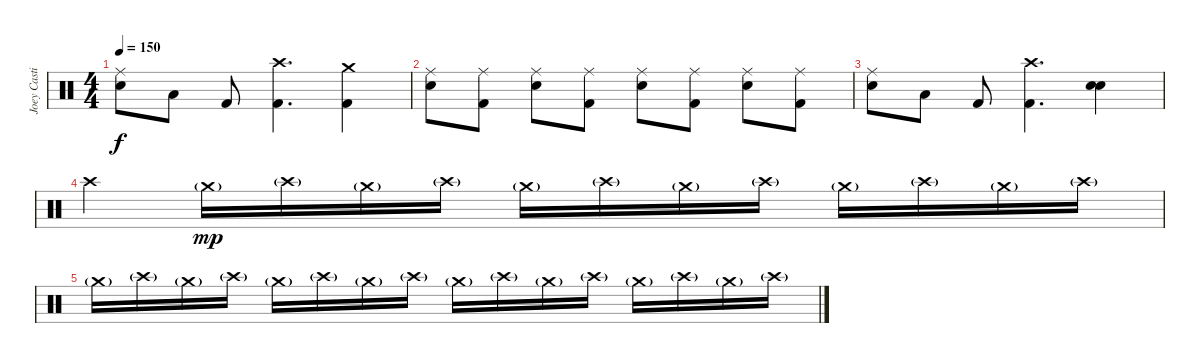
\track ("Joey Castillo" "Joey Casti") {instrument percussion}
\staff {score}
\articulation defaults
\ts (4 4)
\tempo 150
\clef neutral
\ks c
("Ride (middle)" "Snare (hit) 2").8{dy f} "Low Tom (hit)".8 "Kick (hit) 2".8 ("Crash high (hit)" "Kick (hit) 2").4{d} ("Crash medium (hit)" "Kick (hit) 2").4 |
("Ride (middle)" "Snare (hit) 2").8 ("Ride (middle)" "Kick (hit) 2").8 ("Ride (middle)" "Snare (hit) 2").8 ("Ride (middle)" "Kick (hit) 2").8 ("Ride (middle)" "Snare (hit) 2").8 ("Ride (middle)" "Kick (hit) 2").8 ("Ride (middle)" "Snare (hit) 2").8 ("Ride (middle)" "Kick (hit) 2").8 |
("Ride (middle)" "Snare (hit) 2").8 "Low Tom (hit)".8 "Kick (hit) 2".8 ("Crash high (hit)" "Kick (hit) 2").4{d} ("Snare (hit) 2" "Snare (hit) 2").4{bd 240} |
"Crash high (hit)".4 "Crash medium (hit)"{g}.16{dy mp} "Crash high (hit)"{g}.16 "Crash medium (hit)"{g}.16 "Crash high (hit)"{g}.16 "Crash medium (hit)"{g}.16 "Crash high (hit)"{g}.16 "Crash medium (hit)"{g}.16 "Crash high (hit)"{g}.16 "Crash medium (hit)"{g}.16 "Crash high (hit)"{g}.16 "Crash medium (hit)"{g}.16 "Crash high (hit)"{g}.16 |
"Crash medium (hit)"{g}.16 "Crash high (hit)"{g}.16 "Crash medium (hit)"{g}.16 "Crash high (hit)"{g}.16 "Crash medium (hit)"{g}.16 "Crash high (hit)"{g}.16 "Crash medium (hit)"{g}.16 "Crash high (hit)"{g}.16 "Crash medium (hit)"{g}.16 "Crash high (hit)"{g}.16 "Crash medium (hit)"{g}.16 "Crash high (hit)"{g}.16 "Crash medium (hit)"{g}.16 "Crash high (hit)"{g}.16 "Crash medium (hit)"{g}.16 "Crash high (hit)"{g}.16
